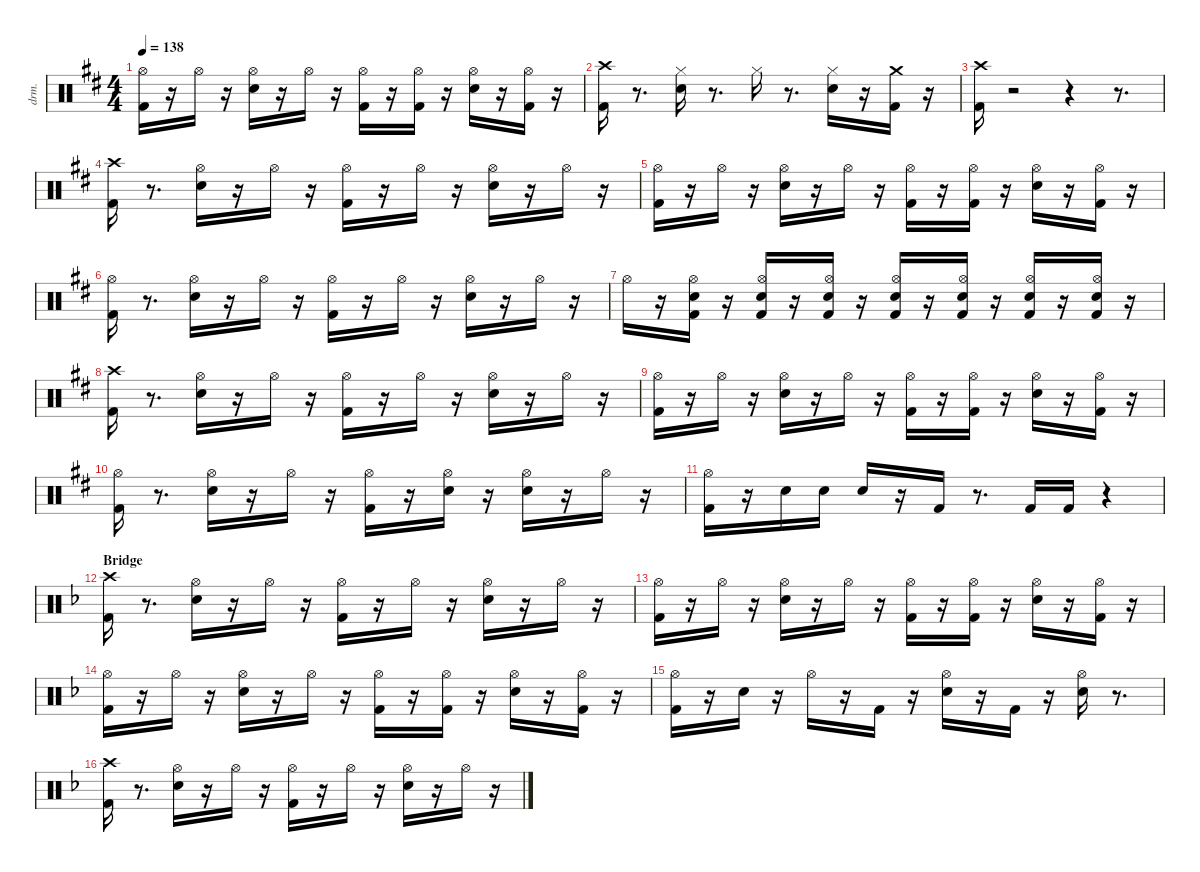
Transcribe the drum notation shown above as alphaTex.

\hideDynamics
\bracketExtendMode groupsimilarinstruments
\otherSystemsTrackNameOrientation horizontal
\track ("Drumkit" "drm.") {instrument percussion}
\staff {score}
\articulation defaults
\ts (4 4)
\tempo 138
\clef neutral
\ks d
("Kick (hit) 2"{acc forcenatural} "Hi-Hat (open)"{acc #}).16{dy fff} r.16 "Hi-Hat (open)"{acc #}.16{dy p} r.16 ("Snare (hit) 2"{acc forcenatural} "Hi-Hat (open)"{acc #}).16{dy f} r.16 "Hi-Hat (open)"{acc #}.16{dy p} r.16 ("Kick (hit) 2"{acc forcenatural} "Hi-Hat (open)"{acc #}).16{dy ff} r.16 ("Kick (hit) 2"{acc forcenatural} "Hi-Hat (open)"{acc #}).16 r.16 ("Snare (hit) 2"{acc forcenatural} "Hi-Hat (open)"{acc #}).16{dy mp} r.16 ("Kick (hit) 2"{acc forcenatural} "Hi-Hat (open)"{acc #}).16{dy ff} r.16 |
("Kick (hit) 2"{acc forcenatural} "Crash high (hit)"{acc #}).16{dy f} r.8{d} ("Snare (hit) 2"{acc forcenatural} "Hi-Hat (closed)"{acc #}).16 r.8{d} "Hi-Hat (closed)"{acc #}.16{dy mp} r.8{d} ("Snare (hit) 2"{acc forcenatural} "Hi-Hat (closed)"{acc #}).16{dy f} r.16 ("Kick (hit) 2"{acc forcenatural} "Crash medium (hit)"{acc forcenatural}).16{dy ff} r.16 |
("Kick (hit) 2"{acc forcenatural} "Crash high (hit)"{acc #}).16{dy f} r.2 r.4 r.8{d} |
("Kick (hit) 2"{acc forcenatural} "Crash high (hit)"{acc #}).16 r.8{d} ("Snare (hit) 2"{acc forcenatural} "Hi-Hat (open)"{acc #}).16 r.16 "Hi-Hat (open)"{acc #}.16{dy p} r.16 ("Kick (hit) 2"{acc forcenatural} "Hi-Hat (open)"{acc #}).16{dy f} r.16 "Hi-Hat (open)"{acc #}.16{dy p} r.16 ("Snare (hit) 2"{acc forcenatural} "Hi-Hat (open)"{acc #}).16{dy mf} r.16 "Hi-Hat (open)"{acc #}.16{dy p} r.16 |
("Kick (hit) 2"{acc forcenatural} "Hi-Hat (open)"{acc #}).16{dy fff} r.16 "Hi-Hat (open)"{acc #}.16{dy p} r.16 ("Snare (hit) 2"{acc forcenatural} "Hi-Hat (open)"{acc #}).16{dy f} r.16 "Hi-Hat (open)"{acc #}.16{dy p} r.16 ("Kick (hit) 2"{acc forcenatural} "Hi-Hat (open)"{acc #}).16{dy ff} r.16 ("Kick (hit) 2"{acc forcenatural} "Hi-Hat (open)"{acc #}).16 r.16 ("Snare (hit) 2"{acc forcenatural} "Hi-Hat (open)"{acc #}).16{dy mp} r.16 ("Kick (hit) 2"{acc forcenatural} "Hi-Hat (open)"{acc #}).16{dy f} r.16 |
("Kick (hit) 2"{acc forcenatural} "Hi-Hat (open)"{acc #}).16 r.8{d} ("Snare (hit) 2"{acc forcenatural} "Hi-Hat (open)"{acc #}).16 r.16 "Hi-Hat (open)"{acc #}.16{dy p} r.16 ("Kick (hit) 2"{acc forcenatural} "Hi-Hat (open)"{acc #}).16{dy f} r.16 "Hi-Hat (open)"{acc #}.16{dy p} r.16 ("Snare (hit) 2"{acc forcenatural} "Hi-Hat (open)"{acc #}).16{dy f} r.16 "Hi-Hat (open)"{acc #}.16{dy p} r.16 |
"Hi-Hat (open)"{acc #}.16{dy mf} r.16 ("Kick (hit) 2"{acc forcenatural} "Snare (hit) 2"{acc forcenatural} "Hi-Hat (open)"{acc #}).16{dy f} r.16 ("Kick (hit) 2"{acc forcenatural} "Snare (hit) 2"{acc forcenatural} "Hi-Hat (open)"{acc #}).16 r.16 ("Kick (hit) 2"{acc forcenatural} "Snare (hit) 2"{acc forcenatural} "Hi-Hat (open)"{acc #}).16{dy ff} r.16 ("Kick (hit) 2"{acc forcenatural} "Snare (hit) 2"{acc forcenatural} "Hi-Hat (open)"{acc #}).16{dy fff} r.16 ("Kick (hit) 2"{acc forcenatural} "Snare (hit) 2"{acc forcenatural} "Hi-Hat (open)"{acc #}).16{dy ff} r.16 ("Kick (hit) 2"{acc forcenatural} "Snare (hit) 2"{acc forcenatural} "Hi-Hat (open)"{acc #}).16{dy fff} r.16 ("Kick (hit) 2"{acc forcenatural} "Snare (hit) 2"{acc forcenatural} "Hi-Hat (open)"{acc #}).16 r.16 |
("Kick (hit) 2"{acc forcenatural} "Crash high (hit)"{acc #}).16{dy f} r.8{d} ("Snare (hit) 2"{acc forcenatural} "Hi-Hat (open)"{acc #}).16 r.16 "Hi-Hat (open)"{acc #}.16{dy p} r.16 ("Kick (hit) 2"{acc forcenatural} "Hi-Hat (open)"{acc #}).16{dy f} r.16 "Hi-Hat (open)"{acc #}.16{dy p} r.16 ("Snare (hit) 2"{acc forcenatural} "Hi-Hat (open)"{acc #}).16{dy f} r.16 "Hi-Hat (open)"{acc #}.16{dy p} r.16 |
("Kick (hit) 2"{acc forcenatural} "Hi-Hat (open)"{acc #}).16{dy ff} r.16 "Hi-Hat (open)"{acc #}.16{dy p} r.16 ("Snare (hit) 2"{acc forcenatural} "Hi-Hat (open)"{acc #}).16{dy mf} r.16 "Hi-Hat (open)"{acc #}.16{dy p} r.16 ("Kick (hit) 2"{acc forcenatural} "Hi-Hat (open)"{acc #}).16{dy ff} r.16 ("Kick (hit) 2"{acc forcenatural} "Hi-Hat (open)"{acc #}).16 r.16 ("Snare (hit) 2"{acc forcenatural} "Hi-Hat (open)"{acc #}).16{dy mp} r.16 ("Kick (hit) 2"{acc forcenatural} "Hi-Hat (open)"{acc #}).16{dy f} r.16 |
("Kick (hit) 2"{acc forcenatural} "Hi-Hat (open)"{acc #}).16 r.8{d} ("Snare (hit) 2"{acc forcenatural} "Hi-Hat (open)"{acc #}).16 r.16 "Hi-Hat (open)"{acc #}.16{dy p} r.16 ("Kick (hit) 2"{acc forcenatural} "Hi-Hat (open)"{acc #}).16{dy f} r.16 ("Snare (hit) 2"{acc forcenatural} "Hi-Hat (open)"{acc #}).16 r.16 ("Snare (hit) 2"{acc forcenatural} "Hi-Hat (open)"{acc #}).16 r.16 "Hi-Hat (open)"{acc #}.16{dy p} r.16 |
("Kick (hit) 2"{acc forcenatural} "Hi-Hat (open)"{acc #}).16{dy fff} r.16 "Snare (hit) 2"{acc forcenatural}.16{dy f} "Snare (hit) 2"{acc forcenatural}.16{dy ff} "Snare (hit) 2"{acc forcenatural}.16{dy f} r.16 "Kick (hit) 2"{acc forcenatural}.16{dy fff} r.8{d} "Kick (hit) 2"{acc forcenatural}.16{dy ff} "Kick (hit) 2"{acc forcenatural}.16{dy fff} r.4 |
\section ("" "Bridge")
\ks f
("Kick (hit) 2"{acc forcenatural} "Crash high (hit)"{acc #}).16{dy f} r.8{d} ("Snare (hit) 2"{acc forcenatural} "Hi-Hat (open)"{acc #}).16 r.16 "Hi-Hat (open)"{acc #}.16{dy p} r.16 ("Kick (hit) 2"{acc forcenatural} "Hi-Hat (open)"{acc #}).16{dy f} r.16 "Hi-Hat (open)"{acc #}.16{dy p} r.16 ("Snare (hit) 2"{acc forcenatural} "Hi-Hat (open)"{acc #}).16{dy f} r.16 "Hi-Hat (open)"{acc #}.16{dy p} r.16 |
("Kick (hit) 2"{acc forcenatural} "Hi-Hat (open)"{acc #}).16{dy ff} r.16 "Hi-Hat (open)"{acc #}.16{dy p} r.16 ("Snare (hit) 2"{acc forcenatural} "Hi-Hat (open)"{acc #}).16{dy mf} r.16 "Hi-Hat (open)"{acc #}.16{dy p} r.16 ("Kick (hit) 2"{acc forcenatural} "Hi-Hat (open)"{acc #}).16{dy ff} r.16 ("Kick (hit) 2"{acc forcenatural} "Hi-Hat (open)"{acc #}).16 r.16 ("Snare (hit) 2"{acc forcenatural} "Hi-Hat (open)"{acc #}).16{dy mp} r.16 ("Kick (hit) 2"{acc forcenatural} "Hi-Hat (open)"{acc #}).16{dy f} r.16 |
("Kick (hit) 2"{acc forcenatural} "Hi-Hat (open)"{acc #}).16{dy ff} r.16 "Hi-Hat (open)"{acc #}.16{dy p} r.16 ("Snare (hit) 2"{acc forcenatural} "Hi-Hat (open)"{acc #}).16{dy f} r.16 "Hi-Hat (open)"{acc #}.16{dy p} r.16 ("Kick (hit) 2"{acc forcenatural} "Hi-Hat (open)"{acc #}).16{dy ff} r.16 ("Kick (hit) 2"{acc forcenatural} "Hi-Hat (open)"{acc #}).16 r.16 ("Snare (hit) 2"{acc forcenatural} "Hi-Hat (open)"{acc #}).16{dy mp} r.16 ("Kick (hit) 2"{acc forcenatural} "Hi-Hat (open)"{acc #}).16{dy f} r.16 |
("Kick (hit) 2"{acc forcenatural} "Hi-Hat (open)"{acc #}).16{dy fff} r.16 "Snare (hit) 2"{acc forcenatural}.16{dy f} r.16 "Hi-Hat (open)"{acc #}.16{dy mp} r.16 "Kick (hit) 2"{acc forcenatural}.16{dy fff} r.16 ("Snare (hit) 2"{acc forcenatural} "Hi-Hat (open)"{acc #}).16{dy f} r.16 "Kick (hit) 2"{acc forcenatural}.16{dy fff} r.16 ("Snare (hit) 2"{acc forcenatural} "Hi-Hat (open)"{acc #}).16{dy ff} r.8{d} |
("Kick (hit) 2"{acc forcenatural} "Crash high (hit)"{acc #}).16{dy f} r.8{d} ("Snare (hit) 2"{acc forcenatural} "Hi-Hat (open)"{acc #}).16 r.16 "Hi-Hat (open)"{acc #}.16{dy p} r.16 ("Kick (hit) 2"{acc forcenatural} "Hi-Hat (open)"{acc #}).16{dy f} r.16 "Hi-Hat (open)"{acc #}.16{dy p} r.16 ("Snare (hit) 2"{acc forcenatural} "Hi-Hat (open)"{acc #}).16{dy mf} r.16 "Hi-Hat (open)"{acc #}.16{dy p} r.16
